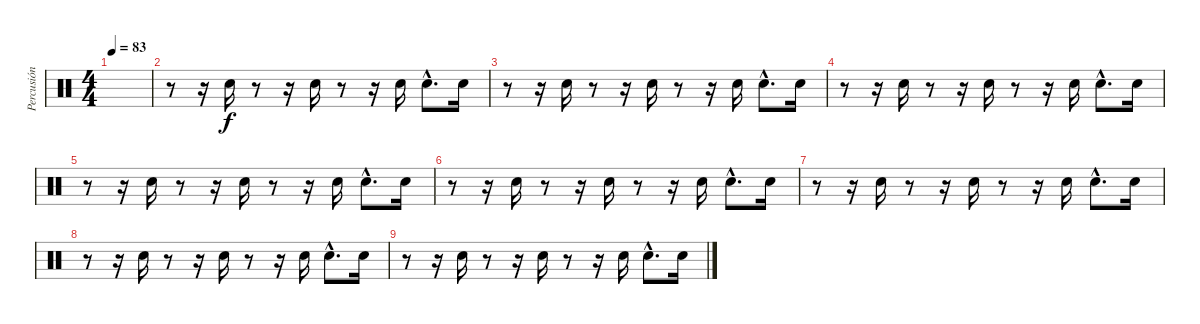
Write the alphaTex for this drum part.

\track ("Percusión" "Percusión") {instrument percussion}
\staff {score}
\articulation defaults
\ts (4 4)
\tempo 83
\clef neutral
\ks c
|
r.8 r.16 "Hand Clap (hit)".16 r.8 r.16 "Hand Clap (hit)".16 r.8 r.16 "Hand Clap (hit)".16 "Hand Clap (hit)"{hac}.8{d} "Hand Clap (hit)".16 |
r.8 r.16 "Hand Clap (hit)".16 r.8 r.16 "Hand Clap (hit)".16 r.8 r.16 "Hand Clap (hit)".16 "Hand Clap (hit)"{hac}.8{d} "Hand Clap (hit)".16 |
r.8 r.16 "Hand Clap (hit)".16 r.8 r.16 "Hand Clap (hit)".16 r.8 r.16 "Hand Clap (hit)".16 "Hand Clap (hit)"{hac}.8{d} "Hand Clap (hit)".16 |
r.8 r.16 "Hand Clap (hit)".16 r.8 r.16 "Hand Clap (hit)".16 r.8 r.16 "Hand Clap (hit)".16 "Hand Clap (hit)"{hac}.8{d} "Hand Clap (hit)".16 |
r.8 r.16 "Hand Clap (hit)".16 r.8 r.16 "Hand Clap (hit)".16 r.8 r.16 "Hand Clap (hit)".16 "Hand Clap (hit)"{hac}.8{d} "Hand Clap (hit)".16 |
r.8 r.16 "Hand Clap (hit)".16 r.8 r.16 "Hand Clap (hit)".16 r.8 r.16 "Hand Clap (hit)".16 "Hand Clap (hit)"{hac}.8{d} "Hand Clap (hit)".16 |
r.8 r.16 "Hand Clap (hit)".16 r.8 r.16 "Hand Clap (hit)".16 r.8 r.16 "Hand Clap (hit)".16 "Hand Clap (hit)"{hac}.8{d} "Hand Clap (hit)".16 |
r.8 r.16 "Hand Clap (hit)".16 r.8 r.16 "Hand Clap (hit)".16 r.8 r.16 "Hand Clap (hit)".16 "Hand Clap (hit)"{hac}.8{d} "Hand Clap (hit)".16
